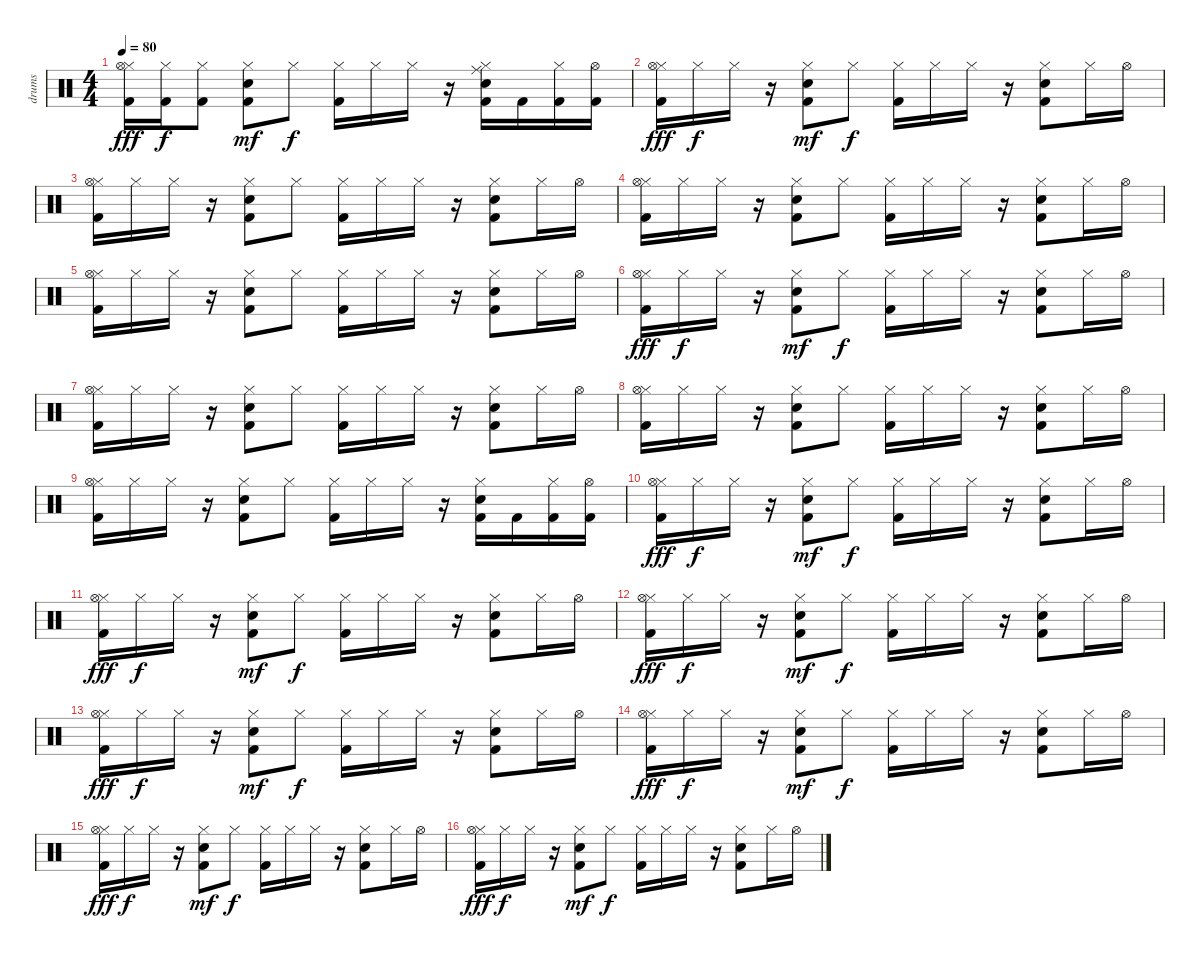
\track ("drums" "drums") {instrument percussion}
\staff {score}
\articulation defaults
\ts (4 4)
\tempo 80
\clef neutral
\ks c
("Hi-Hat (closed)" "Hi-Hat (open)" "Kick (hit) 2").16{dy fff} ("Kick (hit) 2" "Hi-Hat (closed)").16{dy f} ("Kick (hit) 2" "Hi-Hat (closed)").8 ("Kick (hit) 2" "Snare (hit) 2" "Hi-Hat (closed)").8{dy mf} "Hi-Hat (closed)".8{dy f} ("Kick (hit) 2" "Hi-Hat (closed)").16 "Hi-Hat (closed)".16 "Hi-Hat (closed)".16 r.16 ("Ride (middle)" "Kick (hit) 2" "Hi-Hat (closed)" "Snare (hit) 2").16 "Kick (hit) 2".16 ("Kick (hit) 2" "Hi-Hat (closed)").16 ("Kick (hit) 2" "Hi-Hat (open)").16 |
("Hi-Hat (closed)" "Hi-Hat (open)" "Kick (hit) 2").16{dy fff} "Hi-Hat (closed)".16{dy f} "Hi-Hat (closed)".16 r.16 ("Kick (hit) 2" "Snare (hit) 2" "Hi-Hat (closed)").8{dy mf} "Hi-Hat (closed)".8{dy f} ("Kick (hit) 2" "Hi-Hat (closed)").16 "Hi-Hat (closed)".16 "Hi-Hat (closed)".16 r.16 ("Kick (hit) 2" "Hi-Hat (closed)" "Snare (hit) 2").8 "Hi-Hat (closed)".16 "Hi-Hat (open)".16 |
("Hi-Hat (closed)" "Hi-Hat (open)" "Kick (hit) 2").16 "Hi-Hat (closed)".16 "Hi-Hat (closed)".16 r.16 ("Kick (hit) 2" "Snare (hit) 2" "Hi-Hat (closed)").8 "Hi-Hat (closed)".8 ("Kick (hit) 2" "Hi-Hat (closed)").16 "Hi-Hat (closed)".16 "Hi-Hat (closed)".16 r.16 ("Kick (hit) 2" "Hi-Hat (closed)" "Snare (hit) 2").8 "Hi-Hat (closed)".16 "Hi-Hat (open)".16 |
("Hi-Hat (closed)" "Hi-Hat (open)" "Kick (hit) 2").16 "Hi-Hat (closed)".16 "Hi-Hat (closed)".16 r.16 ("Kick (hit) 2" "Snare (hit) 2" "Hi-Hat (closed)").8 "Hi-Hat (closed)".8 ("Kick (hit) 2" "Hi-Hat (closed)").16 "Hi-Hat (closed)".16 "Hi-Hat (closed)".16 r.16 ("Kick (hit) 2" "Hi-Hat (closed)" "Snare (hit) 2").8 "Hi-Hat (closed)".16 "Hi-Hat (open)".16 |
("Hi-Hat (closed)" "Hi-Hat (open)" "Kick (hit) 2").16 "Hi-Hat (closed)".16 "Hi-Hat (closed)".16 r.16 ("Kick (hit) 2" "Snare (hit) 2" "Hi-Hat (closed)").8 "Hi-Hat (closed)".8 ("Kick (hit) 2" "Hi-Hat (closed)").16 "Hi-Hat (closed)".16 "Hi-Hat (closed)".16 r.16 ("Kick (hit) 2" "Hi-Hat (closed)" "Snare (hit) 2").8 "Hi-Hat (closed)".16 "Hi-Hat (open)".16 |
("Hi-Hat (closed)" "Hi-Hat (open)" "Kick (hit) 2").16{dy fff} "Hi-Hat (closed)".16{dy f} "Hi-Hat (closed)".16 r.16 ("Kick (hit) 2" "Snare (hit) 2" "Hi-Hat (closed)").8{dy mf} "Hi-Hat (closed)".8{dy f} ("Kick (hit) 2" "Hi-Hat (closed)").16 "Hi-Hat (closed)".16 "Hi-Hat (closed)".16 r.16 ("Kick (hit) 2" "Hi-Hat (closed)" "Snare (hit) 2").8 "Hi-Hat (closed)".16 "Hi-Hat (open)".16 |
("Hi-Hat (closed)" "Hi-Hat (open)" "Kick (hit) 2").16 "Hi-Hat (closed)".16 "Hi-Hat (closed)".16 r.16 ("Kick (hit) 2" "Snare (hit) 2" "Hi-Hat (closed)").8 "Hi-Hat (closed)".8 ("Kick (hit) 2" "Hi-Hat (closed)").16 "Hi-Hat (closed)".16 "Hi-Hat (closed)".16 r.16 ("Kick (hit) 2" "Hi-Hat (closed)" "Snare (hit) 2").8 "Hi-Hat (closed)".16 "Hi-Hat (open)".16 |
("Hi-Hat (closed)" "Hi-Hat (open)" "Kick (hit) 2").16 "Hi-Hat (closed)".16 "Hi-Hat (closed)".16 r.16 ("Kick (hit) 2" "Snare (hit) 2" "Hi-Hat (closed)").8 "Hi-Hat (closed)".8 ("Kick (hit) 2" "Hi-Hat (closed)").16 "Hi-Hat (closed)".16 "Hi-Hat (closed)".16 r.16 ("Kick (hit) 2" "Hi-Hat (closed)" "Snare (hit) 2").8 "Hi-Hat (closed)".16 "Hi-Hat (open)".16 |
("Hi-Hat (closed)" "Hi-Hat (open)" "Kick (hit) 2").16 "Hi-Hat (closed)".16 "Hi-Hat (closed)".16 r.16 ("Kick (hit) 2" "Snare (hit) 2" "Hi-Hat (closed)").8 "Hi-Hat (closed)".8 ("Kick (hit) 2" "Hi-Hat (closed)").16 "Hi-Hat (closed)".16 "Hi-Hat (closed)".16 r.16 ("Kick (hit) 2" "Hi-Hat (closed)" "Snare (hit) 2").16 "Kick (hit) 2".16 ("Kick (hit) 2" "Hi-Hat (closed)").16 ("Kick (hit) 2" "Hi-Hat (open)").16 |
("Hi-Hat (closed)" "Hi-Hat (open)" "Kick (hit) 2").16{dy fff} "Hi-Hat (closed)".16{dy f} "Hi-Hat (closed)".16 r.16 ("Kick (hit) 2" "Snare (hit) 2" "Hi-Hat (closed)").8{dy mf} "Hi-Hat (closed)".8{dy f} ("Kick (hit) 2" "Hi-Hat (closed)").16 "Hi-Hat (closed)".16 "Hi-Hat (closed)".16 r.16 ("Kick (hit) 2" "Hi-Hat (closed)" "Snare (hit) 2").8 "Hi-Hat (closed)".16 "Hi-Hat (open)".16 |
("Hi-Hat (closed)" "Hi-Hat (open)" "Kick (hit) 2").16{dy fff} "Hi-Hat (closed)".16{dy f} "Hi-Hat (closed)".16 r.16 ("Kick (hit) 2" "Snare (hit) 2" "Hi-Hat (closed)").8{dy mf} "Hi-Hat (closed)".8{dy f} ("Kick (hit) 2" "Hi-Hat (closed)").16 "Hi-Hat (closed)".16 "Hi-Hat (closed)".16 r.16 ("Kick (hit) 2" "Hi-Hat (closed)" "Snare (hit) 2").8 "Hi-Hat (closed)".16 "Hi-Hat (open)".16 |
("Hi-Hat (closed)" "Hi-Hat (open)" "Kick (hit) 2").16{dy fff} "Hi-Hat (closed)".16{dy f} "Hi-Hat (closed)".16 r.16 ("Kick (hit) 2" "Snare (hit) 2" "Hi-Hat (closed)").8{dy mf} "Hi-Hat (closed)".8{dy f} ("Kick (hit) 2" "Hi-Hat (closed)").16 "Hi-Hat (closed)".16 "Hi-Hat (closed)".16 r.16 ("Kick (hit) 2" "Hi-Hat (closed)" "Snare (hit) 2").8 "Hi-Hat (closed)".16 "Hi-Hat (open)".16 |
("Hi-Hat (closed)" "Hi-Hat (open)" "Kick (hit) 2").16{dy fff} "Hi-Hat (closed)".16{dy f} "Hi-Hat (closed)".16 r.16 ("Kick (hit) 2" "Snare (hit) 2" "Hi-Hat (closed)").8{dy mf} "Hi-Hat (closed)".8{dy f} ("Kick (hit) 2" "Hi-Hat (closed)").16 "Hi-Hat (closed)".16 "Hi-Hat (closed)".16 r.16 ("Kick (hit) 2" "Hi-Hat (closed)" "Snare (hit) 2").8 "Hi-Hat (closed)".16 "Hi-Hat (open)".16 |
("Hi-Hat (closed)" "Hi-Hat (open)" "Kick (hit) 2").16{dy fff} "Hi-Hat (closed)".16{dy f} "Hi-Hat (closed)".16 r.16 ("Kick (hit) 2" "Snare (hit) 2" "Hi-Hat (closed)").8{dy mf} "Hi-Hat (closed)".8{dy f} ("Kick (hit) 2" "Hi-Hat (closed)").16 "Hi-Hat (closed)".16 "Hi-Hat (closed)".16 r.16 ("Kick (hit) 2" "Hi-Hat (closed)" "Snare (hit) 2").8 "Hi-Hat (closed)".16 "Hi-Hat (open)".16 |
("Hi-Hat (closed)" "Hi-Hat (open)" "Kick (hit) 2").16{dy fff} "Hi-Hat (closed)".16{dy f} "Hi-Hat (closed)".16 r.16 ("Kick (hit) 2" "Snare (hit) 2" "Hi-Hat (closed)").8{dy mf} "Hi-Hat (closed)".8{dy f} ("Kick (hit) 2" "Hi-Hat (closed)").16 "Hi-Hat (closed)".16 "Hi-Hat (closed)".16 r.16 ("Kick (hit) 2" "Hi-Hat (closed)" "Snare (hit) 2").8 "Hi-Hat (closed)".16 "Hi-Hat (open)".16 |
("Hi-Hat (closed)" "Hi-Hat (open)" "Kick (hit) 2").16{dy fff} "Hi-Hat (closed)".16{dy f} "Hi-Hat (closed)".16 r.16 ("Kick (hit) 2" "Snare (hit) 2" "Hi-Hat (closed)").8{dy mf} "Hi-Hat (closed)".8{dy f} ("Kick (hit) 2" "Hi-Hat (closed)").16 "Hi-Hat (closed)".16 "Hi-Hat (closed)".16 r.16 ("Kick (hit) 2" "Hi-Hat (closed)" "Snare (hit) 2").8 "Hi-Hat (closed)".16 "Hi-Hat (open)".16
